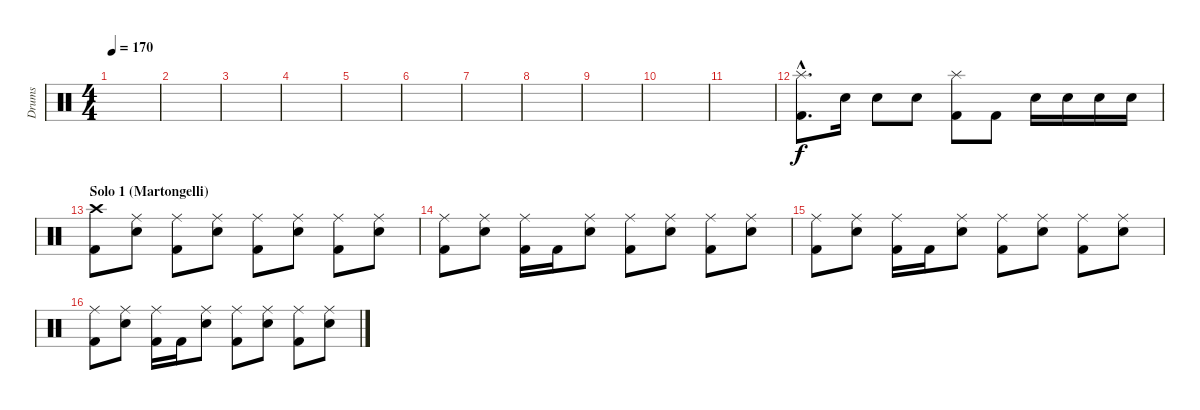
\track ("Drums" "Drums") {instrument percussion}
\staff {score}
\articulation defaults
\ts (4 4)
\tempo 170
\clef neutral
\ks c
|
|
|
|
\section ("" "")
|
|
|
|
|
|
|
("Splash (hit)"{hac} "Kick (hit) 2"{hac}).8{d} "Snare (hit) 2".16 "Snare (hit) 2".8 "Snare (hit) 2".8 ("Splash (hit)" "Kick (hit) 2").8 "Kick (hit) 2".8 "Snare (hit) 2".16 "Snare (hit) 2".16 "Snare (hit) 2".16 "Snare (hit) 2".16 |
\section ("" "Solo 1 (Martongelli)")
("Crash high (hit)" "Kick (hit) 2").8 ("Ride (middle)" "Snare (hit) 2").8 ("Ride (middle)" "Kick (hit) 2").8 ("Ride (middle)" "Snare (hit) 2").8 ("Ride (middle)" "Kick (hit) 2").8 ("Ride (middle)" "Snare (hit) 2").8 ("Ride (middle)" "Kick (hit) 2").8 ("Ride (middle)" "Snare (hit) 2").8 |
("Ride (middle)" "Kick (hit) 2").8 ("Ride (middle)" "Snare (hit) 2").8 ("Ride (middle)" "Kick (hit) 2").16 "Kick (hit) 2".16 ("Ride (middle)" "Snare (hit) 2").8 ("Ride (middle)" "Kick (hit) 2").8 ("Ride (middle)" "Snare (hit) 2").8 ("Ride (middle)" "Kick (hit) 2").8 ("Ride (middle)" "Snare (hit) 2").8 |
("Ride (middle)" "Kick (hit) 2").8 ("Ride (middle)" "Snare (hit) 2").8 ("Ride (middle)" "Kick (hit) 2").16 "Kick (hit) 2".16 ("Ride (middle)" "Snare (hit) 2").8 ("Ride (middle)" "Kick (hit) 2").8 ("Ride (middle)" "Snare (hit) 2").8 ("Ride (middle)" "Kick (hit) 2").8 ("Ride (middle)" "Snare (hit) 2").8 |
("Ride (middle)" "Kick (hit) 2").8 ("Ride (middle)" "Snare (hit) 2").8 ("Ride (middle)" "Kick (hit) 2").16 "Kick (hit) 2".16 ("Ride (middle)" "Snare (hit) 2").8 ("Ride (middle)" "Kick (hit) 2").8 ("Ride (middle)" "Snare (hit) 2").8 ("Ride (middle)" "Kick (hit) 2").8 ("Ride (middle)" "Snare (hit) 2").8
